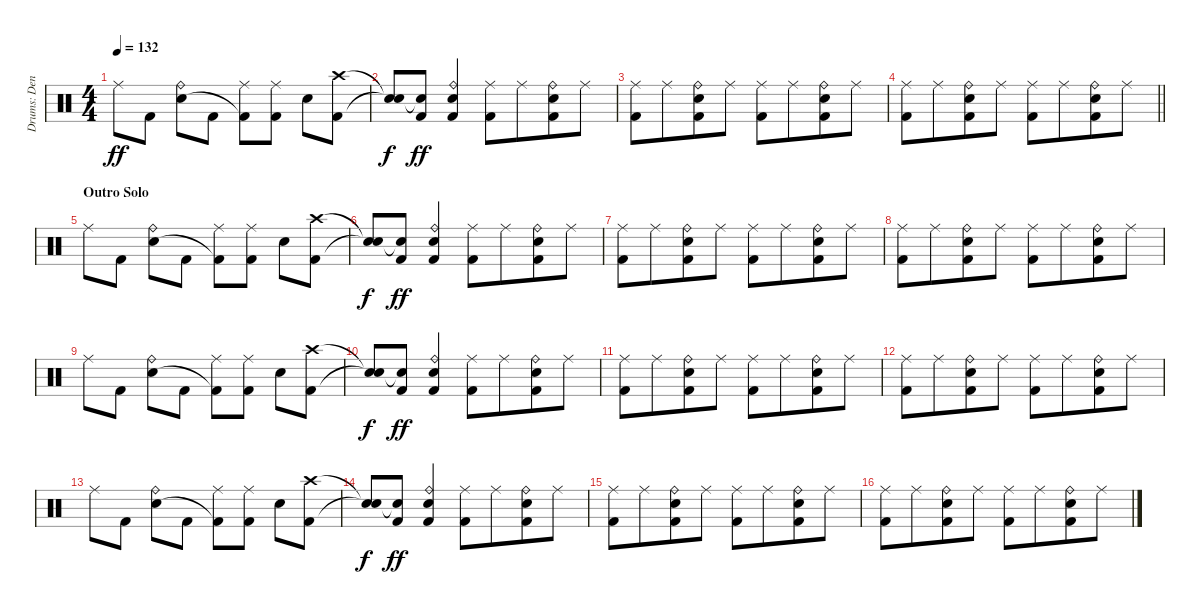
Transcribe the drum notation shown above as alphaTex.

\track ("Drums: Denny" "Drums: Den") {instrument percussion}
\staff {score}
\articulation defaults
\ts (4 4)
\tempo 132
\clef neutral
\ks c "Ride (middle)".8{dy ff} "Kick (hit) 2".8
("Ride (bell)" "Electric Snare (hit)").8 "Kick (hit) 2".8 ("Ride (middle)" "Kick (hit) 2"{t}).8 ("Ride (middle)" "Kick (hit) 2").8 "Electric Snare (hit)".8 ("Crash high (hit)" "Kick (hit) 2").8 |
("Snare (hit)"{t} "Snare (hit)"{t}).8{dy f} ("Snare (hit)"{t} "Kick (hit) 2").8{dy ff} ("Ride (bell)" "Electric Snare (hit)" "Kick (hit) 2").4 ("Ride (middle)" "Kick (hit) 2").8 "Ride (middle)".8{beam merge} ("Ride (bell)" "Electric Snare (hit)" "Kick (hit) 2").8 "Ride (middle)".8 |
("Ride (middle)" "Kick (hit) 2").8 "Ride (middle)".8{beam merge} ("Ride (bell)" "Electric Snare (hit)" "Kick (hit) 2").8 "Ride (middle)".8 ("Ride (middle)" "Kick (hit) 2").8 "Ride (middle)".8{beam merge} ("Ride (bell)" "Electric Snare (hit)" "Kick (hit) 2").8 "Ride (middle)".8 |
\barLineRight lightlight
("Ride (middle)" "Kick (hit) 2").8 "Ride (middle)".8{beam merge} ("Ride (bell)" "Electric Snare (hit)" "Kick (hit) 2").8 "Ride (middle)".8 ("Ride (middle)" "Kick (hit) 2").8 "Ride (middle)".8{beam merge} ("Ride (bell)" "Electric Snare (hit)" "Kick (hit) 2").8 "Ride (middle)".8 |
\section ("" "Outro Solo")
"Ride (middle)".8 "Kick (hit) 2".8 ("Ride (bell)" "Electric Snare (hit)").8 "Kick (hit) 2".8 ("Ride (middle)" "Kick (hit) 2"{t}).8 ("Ride (middle)" "Kick (hit) 2").8 "Electric Snare (hit)".8 ("Crash high (hit)" "Kick (hit) 2").8 |
("Snare (hit)"{t} "Snare (hit)"{t}).8{dy f} ("Snare (hit)"{t} "Kick (hit) 2").8{dy ff} ("Ride (bell)" "Electric Snare (hit)" "Kick (hit) 2").4 ("Ride (middle)" "Kick (hit) 2").8 "Ride (middle)".8{beam merge} ("Ride (bell)" "Electric Snare (hit)" "Kick (hit) 2").8 "Ride (middle)".8 |
("Ride (middle)" "Kick (hit) 2").8 "Ride (middle)".8{beam merge} ("Ride (bell)" "Electric Snare (hit)" "Kick (hit) 2").8 "Ride (middle)".8 ("Ride (middle)" "Kick (hit) 2").8 "Ride (middle)".8{beam merge} ("Ride (bell)" "Electric Snare (hit)" "Kick (hit) 2").8 "Ride (middle)".8 |
("Ride (middle)" "Kick (hit) 2").8 "Ride (middle)".8{beam merge} ("Ride (bell)" "Electric Snare (hit)" "Kick (hit) 2").8 "Ride (middle)".8 ("Ride (middle)" "Kick (hit) 2").8 "Ride (middle)".8{beam merge} ("Ride (bell)" "Electric Snare (hit)" "Kick (hit) 2").8 "Ride (middle)".8 |
"Ride (middle)".8 "Kick (hit) 2".8 ("Ride (bell)" "Electric Snare (hit)").8 "Kick (hit) 2".8 ("Ride (middle)" "Kick (hit) 2"{t}).8 ("Ride (middle)" "Kick (hit) 2").8 "Electric Snare (hit)".8 ("Crash high (hit)" "Kick (hit) 2").8 |
("Snare (hit)"{t} "Snare (hit)"{t}).8{dy f} ("Snare (hit)"{t} "Kick (hit) 2").8{dy ff} ("Ride (bell)" "Electric Snare (hit)" "Kick (hit) 2").4 ("Ride (middle)" "Kick (hit) 2").8 "Ride (middle)".8{beam merge} ("Ride (bell)" "Electric Snare (hit)" "Kick (hit) 2").8 "Ride (middle)".8 |
("Ride (middle)" "Kick (hit) 2").8 "Ride (middle)".8{beam merge} ("Ride (bell)" "Electric Snare (hit)" "Kick (hit) 2").8 "Ride (middle)".8 ("Ride (middle)" "Kick (hit) 2").8 "Ride (middle)".8{beam merge} ("Ride (bell)" "Electric Snare (hit)" "Kick (hit) 2").8 "Ride (middle)".8 |
("Ride (middle)" "Kick (hit) 2").8 "Ride (middle)".8{beam merge} ("Ride (bell)" "Electric Snare (hit)" "Kick (hit) 2").8 "Ride (middle)".8 ("Ride (middle)" "Kick (hit) 2").8 "Ride (middle)".8{beam merge} ("Ride (bell)" "Electric Snare (hit)" "Kick (hit) 2").8 "Ride (middle)".8 |
"Ride (middle)".8 "Kick (hit) 2".8 ("Ride (bell)" "Electric Snare (hit)").8 "Kick (hit) 2".8 ("Ride (middle)" "Kick (hit) 2"{t}).8 ("Ride (middle)" "Kick (hit) 2").8 "Electric Snare (hit)".8 ("Crash high (hit)" "Kick (hit) 2").8 |
("Snare (hit)"{t} "Snare (hit)"{t}).8{dy f} ("Snare (hit)"{t} "Kick (hit) 2").8{dy ff} ("Ride (bell)" "Electric Snare (hit)" "Kick (hit) 2").4 ("Ride (middle)" "Kick (hit) 2").8 "Ride (middle)".8{beam merge} ("Ride (bell)" "Electric Snare (hit)" "Kick (hit) 2").8 "Ride (middle)".8 |
("Ride (middle)" "Kick (hit) 2").8 "Ride (middle)".8{beam merge} ("Ride (bell)" "Electric Snare (hit)" "Kick (hit) 2").8 "Ride (middle)".8 ("Ride (middle)" "Kick (hit) 2").8 "Ride (middle)".8{beam merge} ("Ride (bell)" "Electric Snare (hit)" "Kick (hit) 2").8 "Ride (middle)".8 |
("Ride (middle)" "Kick (hit) 2").8 "Ride (middle)".8{beam merge} ("Ride (bell)" "Electric Snare (hit)" "Kick (hit) 2").8 "Ride (middle)".8 ("Ride (middle)" "Kick (hit) 2").8 "Ride (middle)".8{beam merge} ("Ride (bell)" "Electric Snare (hit)" "Kick (hit) 2").8 "Ride (middle)".8
